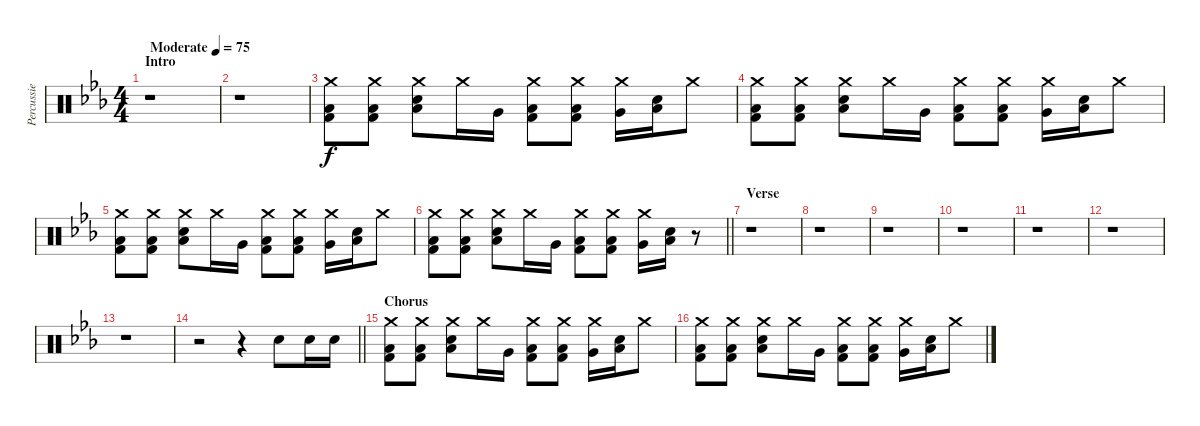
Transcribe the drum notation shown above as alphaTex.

\track ("Percussie" "Percussie") {instrument percussion}
\staff {score}
\articulation defaults
\ts (4 4)
\section ("" "Intro")
\tempo (75 "Moderate")
\clef neutral
\ks eb
r.1{dy f} |
r.1 |
("Low Floor Tom (hit)" "Kick (hit) 2" "Crash medium (hit)").8 ("Low Floor Tom (hit)" "Kick (hit) 2" "Crash medium (hit)").8 ("Low Tom (hit)" "Electric Snare (hit)" "Crash medium (hit)").8 "Crash medium (hit)".16 "Very Low Tom (hit)".16 ("Low Floor Tom (hit)" "Kick (hit) 2" "Crash medium (hit)").8 ("Low Floor Tom (hit)" "Kick (hit) 2" "Crash medium (hit)").8 ("Very Low Tom (hit)" "Crash medium (hit)").16 ("Low Tom (hit)" "Electric Snare (hit)").16 "Crash medium (hit)".8 |
("Low Floor Tom (hit)" "Kick (hit) 2" "Crash medium (hit)").8 ("Low Floor Tom (hit)" "Kick (hit) 2" "Crash medium (hit)").8 ("Low Tom (hit)" "Electric Snare (hit)" "Crash medium (hit)").8 "Crash medium (hit)".16 "Very Low Tom (hit)".16 ("Low Floor Tom (hit)" "Kick (hit) 2" "Crash medium (hit)").8 ("Low Floor Tom (hit)" "Kick (hit) 2" "Crash medium (hit)").8 ("Very Low Tom (hit)" "Crash medium (hit)").16 ("Low Tom (hit)" "Electric Snare (hit)").16 "Crash medium (hit)".8 |
("Low Floor Tom (hit)" "Kick (hit) 2" "Crash medium (hit)").8 ("Low Floor Tom (hit)" "Kick (hit) 2" "Crash medium (hit)").8 ("Low Tom (hit)" "Electric Snare (hit)" "Crash medium (hit)").8 "Crash medium (hit)".16 "Very Low Tom (hit)".16 ("Low Floor Tom (hit)" "Kick (hit) 2" "Crash medium (hit)").8 ("Low Floor Tom (hit)" "Kick (hit) 2" "Crash medium (hit)").8 ("Very Low Tom (hit)" "Crash medium (hit)").16 ("Low Tom (hit)" "Electric Snare (hit)").16 "Crash medium (hit)".8 |
\barLineRight lightlight
("Low Floor Tom (hit)" "Kick (hit) 2" "Crash medium (hit)").8 ("Low Floor Tom (hit)" "Kick (hit) 2" "Crash medium (hit)").8 ("Low Tom (hit)" "Electric Snare (hit)" "Crash medium (hit)").8 "Crash medium (hit)".16 "Very Low Tom (hit)".16 ("Low Floor Tom (hit)" "Kick (hit) 2" "Crash medium (hit)").8 ("Low Floor Tom (hit)" "Kick (hit) 2" "Crash medium (hit)").8 ("Very Low Tom (hit)" "Crash medium (hit)").16 ("Low Tom (hit)" "Electric Snare (hit)").16 r.8 |
\section ("" "Verse")
r.1 |
r.1 |
r.1 |
r.1 |
r.1 |
r.1 |
r.1 |
\barLineRight lightlight
r.2 r.4 "Electric Snare (hit)".8 "Electric Snare (hit)".16 "Electric Snare (hit)".16 |
\section ("" "Chorus")
("Low Floor Tom (hit)" "Kick (hit) 2" "Crash medium (hit)").8 ("Low Floor Tom (hit)" "Kick (hit) 2" "Crash medium (hit)").8 ("Low Tom (hit)" "Electric Snare (hit)" "Crash medium (hit)").8 "Crash medium (hit)".16 "Very Low Tom (hit)".16 ("Low Floor Tom (hit)" "Kick (hit) 2" "Crash medium (hit)").8 ("Low Floor Tom (hit)" "Kick (hit) 2" "Crash medium (hit)").8 ("Very Low Tom (hit)" "Crash medium (hit)").16 ("Low Tom (hit)" "Electric Snare (hit)").16 "Crash medium (hit)".8 |
("Low Floor Tom (hit)" "Kick (hit) 2" "Crash medium (hit)").8 ("Low Floor Tom (hit)" "Kick (hit) 2" "Crash medium (hit)").8 ("Low Tom (hit)" "Electric Snare (hit)" "Crash medium (hit)").8 "Crash medium (hit)".16 "Very Low Tom (hit)".16 ("Low Floor Tom (hit)" "Kick (hit) 2" "Crash medium (hit)").8 ("Low Floor Tom (hit)" "Kick (hit) 2" "Crash medium (hit)").8 ("Very Low Tom (hit)" "Crash medium (hit)").16 ("Low Tom (hit)" "Electric Snare (hit)").16 "Crash medium (hit)".8
